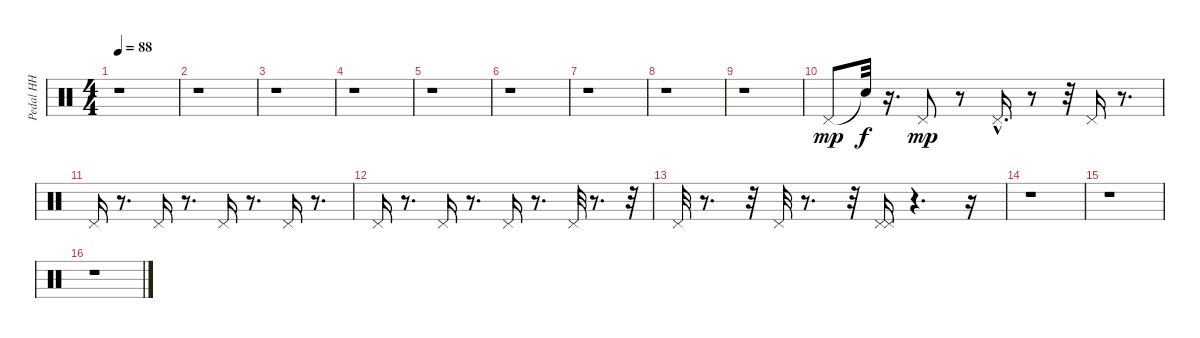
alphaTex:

\track ("Pedal HH" "Pedal HH") {instrument percussion}
\staff {score}
\articulation defaults
\ts (4 4)
\tempo 88
\clef neutral
\ks c
r.1{dy mp} |
r.1 |
r.1 |
r.1 |
r.1 |
r.1 |
r.1 |
r.1 |
r.1 |
"Pedal Hi-Hat (hit)".8 "Snare (hit)"{t}.32{dy f} r.16{d} "Pedal Hi-Hat (hit)".8{dy mp} r.8 "Pedal Hi-Hat (hit)"{hac}.16{d} r.8 r.32 "Pedal Hi-Hat (hit)".16 r.8{d} |
"Pedal Hi-Hat (hit)".16 r.8{d} "Pedal Hi-Hat (hit)".16 r.8{d} "Pedal Hi-Hat (hit)".16 r.8{d} "Pedal Hi-Hat (hit)".16 r.8{d} |
"Pedal Hi-Hat (hit)".16 r.8{d} "Pedal Hi-Hat (hit)".16 r.8{d} "Pedal Hi-Hat (hit)".16 r.8{d} "Pedal Hi-Hat (hit)".32 r.8{d} r.32 |
"Pedal Hi-Hat (hit)".32 r.8{d} r.32 "Pedal Hi-Hat (hit)".32 r.8{d} r.32 ("Pedal Hi-Hat (hit)" "Pedal Hi-Hat (hit)").16 r.4{d} r.16 |
r.1 |
r.1 |
r.1
